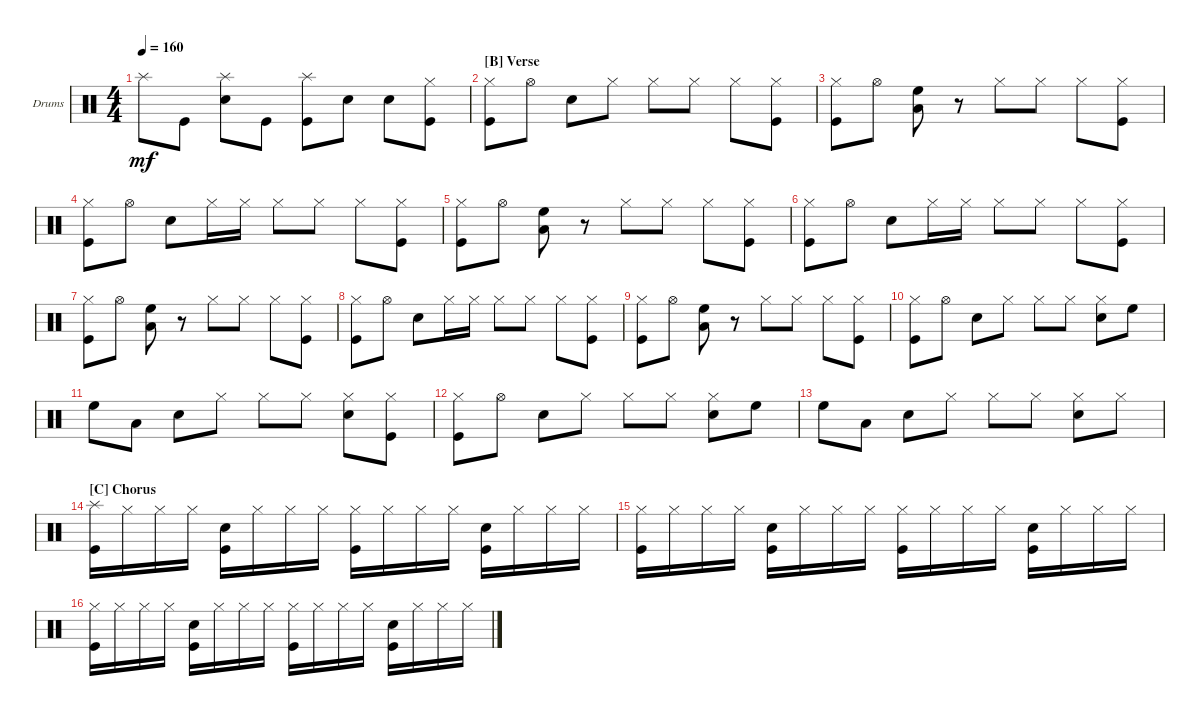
\bracketExtendMode groupsimilarinstruments
\firstSystemTrackNameOrientation horizontal
\otherSystemsTrackNameOrientation horizontal
\track ("Drumkit" "Drums") {instrument percussion}
\staff {score}
\articulation defaults
\ts (4 4)
\tempo 160
\clef neutral
\ks c "Splash (hit)".8{dy mf} "Kick (hit)".8
("Snare (hit) 2" "Splash (hit)").8 "Kick (hit)".8 ("Kick (hit)" "Splash (hit)").8 "Snare (hit) 2".8 "Snare (hit) 2".8 ("Kick (hit)" "Hi-Hat (closed)").8 |
\section ("B" "Verse")
("Kick (hit)" "Hi-Hat (closed)").8 "Hi-Hat (open)".8 "Snare (hit) 2".8 "Hi-Hat (closed)".8 "Hi-Hat (closed)".8 "Hi-Hat (closed)".8 "Hi-Hat (closed)".8 ("Hi-Hat (closed)" "Kick (hit)").8 |
("Kick (hit)" "Hi-Hat (closed)").8 "Hi-Hat (open)".8 ("Low Tom (hit)" "High Floor Tom (hit)").8 r.8 "Hi-Hat (closed)".8 "Hi-Hat (closed)".8 "Hi-Hat (closed)".8 ("Hi-Hat (closed)" "Kick (hit)").8 |
("Kick (hit)" "Hi-Hat (closed)").8 "Hi-Hat (open)".8 "Snare (hit) 2".8 "Hi-Hat (closed)".16 "Hi-Hat (closed)".16 "Hi-Hat (closed)".8 "Hi-Hat (closed)".8 "Hi-Hat (closed)".8 ("Hi-Hat (closed)" "Kick (hit)").8 |
("Kick (hit)" "Hi-Hat (closed)").8 "Hi-Hat (open)".8 ("Low Tom (hit)" "High Floor Tom (hit)").8 r.8 "Hi-Hat (closed)".8 "Hi-Hat (closed)".8 "Hi-Hat (closed)".8 ("Hi-Hat (closed)" "Kick (hit)").8 |
("Kick (hit)" "Hi-Hat (closed)").8 "Hi-Hat (open)".8 "Snare (hit) 2".8 "Hi-Hat (closed)".16 "Hi-Hat (closed)".16 "Hi-Hat (closed)".8 "Hi-Hat (closed)".8 "Hi-Hat (closed)".8 ("Hi-Hat (closed)" "Kick (hit)").8 |
("Kick (hit)" "Hi-Hat (closed)").8 "Hi-Hat (open)".8 ("Low Tom (hit)" "High Floor Tom (hit)").8 r.8 "Hi-Hat (closed)".8 "Hi-Hat (closed)".8 "Hi-Hat (closed)".8 ("Hi-Hat (closed)" "Kick (hit)").8 |
("Kick (hit)" "Hi-Hat (closed)").8 "Hi-Hat (open)".8 "Snare (hit) 2".8 "Hi-Hat (closed)".16 "Hi-Hat (closed)".16 "Hi-Hat (closed)".8 "Hi-Hat (closed)".8 "Hi-Hat (closed)".8 ("Hi-Hat (closed)" "Kick (hit)").8 |
("Kick (hit)" "Hi-Hat (closed)").8 "Hi-Hat (open)".8 ("Low Tom (hit)" "High Floor Tom (hit)").8 r.8 "Hi-Hat (closed)".8 "Hi-Hat (closed)".8 "Hi-Hat (closed)".8 ("Hi-Hat (closed)" "Kick (hit)").8 |
("Kick (hit)" "Hi-Hat (closed)").8 "Hi-Hat (open)".8 "Snare (hit) 2".8 "Hi-Hat (closed)".8 "Hi-Hat (closed)".8 "Hi-Hat (closed)".8 ("Hi-Hat (closed)" "Snare (hit) 2").8 "High Floor Tom (hit)".8 |
"High Floor Tom (hit)".8 "Low Tom (hit)".8 "Snare (hit) 2".8 "Hi-Hat (closed)".8 "Hi-Hat (closed)".8 "Hi-Hat (closed)".8 ("Hi-Hat (closed)" "Snare (hit) 2").8 ("Hi-Hat (closed)" "Kick (hit)").8 |
("Kick (hit)" "Hi-Hat (closed)").8 "Hi-Hat (open)".8 "Snare (hit) 2".8 "Hi-Hat (closed)".8 "Hi-Hat (closed)".8 "Hi-Hat (closed)".8 ("Hi-Hat (closed)" "Snare (hit) 2").8 "High Floor Tom (hit)".8 |
"High Floor Tom (hit)".8 "Low Tom (hit)".8 "Snare (hit) 2".8 "Hi-Hat (closed)".8 "Hi-Hat (closed)".8 "Hi-Hat (closed)".8 ("Hi-Hat (closed)" "Snare (hit) 2").8 "Hi-Hat (closed)".8 |
\section ("C" "Chorus")
("Kick (hit)" "Splash (hit)").16 "Hi-Hat (closed)".16 "Hi-Hat (closed)".16 "Hi-Hat (closed)".16 ("Snare (hit) 2" "Kick (hit)").16 "Hi-Hat (closed)".16 "Hi-Hat (closed)".16 "Hi-Hat (closed)".16 ("Kick (hit)" "Hi-Hat (closed)").16 "Hi-Hat (closed)".16 "Hi-Hat (closed)".16 "Hi-Hat (closed)".16 ("Snare (hit) 2" "Kick (hit)").16 "Hi-Hat (closed)".16 "Hi-Hat (closed)".16 "Hi-Hat (closed)".16 |
("Kick (hit)" "Hi-Hat (closed)").16 "Hi-Hat (closed)".16 "Hi-Hat (closed)".16 "Hi-Hat (closed)".16 ("Snare (hit) 2" "Kick (hit)").16 "Hi-Hat (closed)".16 "Hi-Hat (closed)".16 "Hi-Hat (closed)".16 ("Kick (hit)" "Hi-Hat (closed)").16 "Hi-Hat (closed)".16 "Hi-Hat (closed)".16 "Hi-Hat (closed)".16 ("Snare (hit) 2" "Kick (hit)").16 "Hi-Hat (closed)".16 "Hi-Hat (closed)".16 "Hi-Hat (closed)".16 |
("Kick (hit)" "Hi-Hat (closed)").16 "Hi-Hat (closed)".16 "Hi-Hat (closed)".16 "Hi-Hat (closed)".16 ("Snare (hit) 2" "Kick (hit)").16 "Hi-Hat (closed)".16 "Hi-Hat (closed)".16 "Hi-Hat (closed)".16 ("Kick (hit)" "Hi-Hat (closed)").16 "Hi-Hat (closed)".16 "Hi-Hat (closed)".16 "Hi-Hat (closed)".16 ("Snare (hit) 2" "Kick (hit)").16 "Hi-Hat (closed)".16 "Hi-Hat (closed)".16 "Hi-Hat (closed)".16
